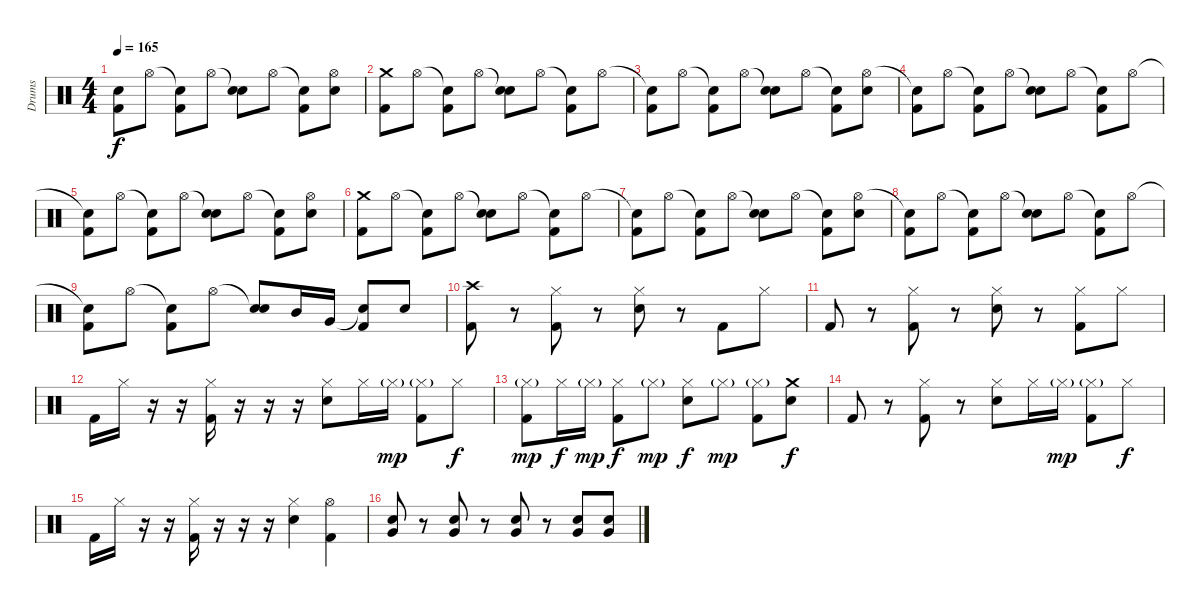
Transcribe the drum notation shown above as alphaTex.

\track ("Drums" "Drums") {instrument percussion}
\staff {score}
\articulation defaults
\ts (4 4)
\tempo 165
\clef neutral
\ks c
("Snare (hit)"{t} "Kick (hit) 2").8{dy f} "Hi-Hat (open)".8 ("Snare (hit)"{t} "Kick (hit) 2").8 "Hi-Hat (open)".8 ("Snare (hit)"{t} "Electric Snare (hit)").8 "Hi-Hat (open)".8 ("Snare (hit)"{t} "Kick (hit) 2").8 ("Hi-Hat (open)" "Electric Snare (hit)").8 |
("Crash medium (hit)" "Kick (hit) 2").8 "Hi-Hat (open)".8 ("Snare (hit)"{t} "Kick (hit) 2").8 "Hi-Hat (open)".8 ("Snare (hit)"{t} "Electric Snare (hit)").8 "Hi-Hat (open)".8 ("Snare (hit)"{t} "Kick (hit) 2").8 "Hi-Hat (open)".8 |
("Snare (hit)"{t} "Kick (hit) 2").8 "Hi-Hat (open)".8 ("Snare (hit)"{t} "Kick (hit) 2").8 "Hi-Hat (open)".8 ("Snare (hit)"{t} "Electric Snare (hit)").8 "Hi-Hat (open)".8 ("Snare (hit)"{t} "Kick (hit) 2").8 ("Hi-Hat (open)" "Electric Snare (hit)").8 |
("Snare (hit)"{t} "Kick (hit) 2").8 "Hi-Hat (open)".8 ("Snare (hit)"{t} "Kick (hit) 2").8 "Hi-Hat (open)".8 ("Snare (hit)"{t} "Electric Snare (hit)").8 "Hi-Hat (open)".8 ("Snare (hit)"{t} "Kick (hit) 2").8 "Hi-Hat (open)".8 |
("Snare (hit)"{t} "Kick (hit) 2").8 "Hi-Hat (open)".8 ("Snare (hit)"{t} "Kick (hit) 2").8 "Hi-Hat (open)".8 ("Snare (hit)"{t} "Electric Snare (hit)").8 "Hi-Hat (open)".8 ("Snare (hit)"{t} "Kick (hit) 2").8 ("Hi-Hat (open)" "Electric Snare (hit)").8 |
("Crash medium (hit)" "Kick (hit) 2").8 "Hi-Hat (open)".8 ("Snare (hit)"{t} "Kick (hit) 2").8 "Hi-Hat (open)".8 ("Snare (hit)"{t} "Electric Snare (hit)").8 "Hi-Hat (open)".8 ("Snare (hit)"{t} "Kick (hit) 2").8 "Hi-Hat (open)".8 |
("Snare (hit)"{t} "Kick (hit) 2").8 "Hi-Hat (open)".8 ("Snare (hit)"{t} "Kick (hit) 2").8 "Hi-Hat (open)".8 ("Snare (hit)"{t} "Electric Snare (hit)").8 "Hi-Hat (open)".8 ("Snare (hit)"{t} "Kick (hit) 2").8 ("Hi-Hat (open)" "Electric Snare (hit)").8 |
("Snare (hit)"{t} "Kick (hit) 2").8 "Hi-Hat (open)".8 ("Snare (hit)"{t} "Kick (hit) 2").8 "Hi-Hat (open)".8 ("Snare (hit)"{t} "Electric Snare (hit)").8 "Hi-Hat (open)".8 ("Snare (hit)"{t} "Kick (hit) 2").8 "Hi-Hat (open)".8 |
("Snare (hit)"{t} "Kick (hit) 2").8 "Hi-Hat (open)".8 ("Snare (hit)"{t} "Kick (hit) 2").8 "Hi-Hat (open)".8 ("Snare (hit)"{t} "Electric Snare (hit)").8 "Mid Tom (hit)".16 "Very Low Tom (hit)".16 ("Snare (hit)"{t} "Kick (hit) 2").8 "Electric Snare (hit)".8 |
("Crash high (hit)" "Kick (hit) 2").8 r.8 ("Hi-Hat (closed)" "Kick (hit) 2").8 r.8 ("Hi-Hat (closed)" "Electric Snare (hit)").8 r.8 "Kick (hit) 2".8 "Hi-Hat (closed)".8 |
"Kick (hit) 2".8 r.8 ("Hi-Hat (closed)" "Kick (hit) 2").8 r.8 ("Hi-Hat (closed)" "Electric Snare (hit)").8 r.8 ("Hi-Hat (closed)" "Kick (hit) 2").8 "Hi-Hat (closed)".8 |
"Kick (hit) 2".16 "Hi-Hat (closed)".16 r.16 r.16 ("Hi-Hat (closed)" "Kick (hit) 2").16 r.16 r.16 r.16 ("Hi-Hat (closed)" "Electric Snare (hit)").8 "Hi-Hat (closed)".16 "Hi-Hat (closed)"{g}.16{dy mp} ("Hi-Hat (closed)"{g} "Kick (hit) 2").8 "Hi-Hat (closed)".8{dy f} |
("Hi-Hat (closed)"{g} "Kick (hit) 2").8{dy mp} "Hi-Hat (closed)".16{dy f} "Hi-Hat (closed)"{g}.16{dy mp} ("Hi-Hat (closed)" "Kick (hit) 2").8{dy f} "Hi-Hat (closed)"{g}.8{dy mp} ("Hi-Hat (closed)" "Electric Snare (hit)").8{dy f} "Hi-Hat (closed)"{g}.8{dy mp} ("Hi-Hat (closed)"{g} "Kick (hit) 2").8 ("Crash medium (hit)" "Electric Snare (hit)").8{dy f} |
"Kick (hit) 2".8 r.8 ("Hi-Hat (closed)" "Kick (hit) 2").8 r.8 ("Hi-Hat (closed)" "Electric Snare (hit)").8 "Hi-Hat (closed)".16 "Hi-Hat (closed)"{g}.16{dy mp} ("Hi-Hat (closed)"{g} "Kick (hit) 2").8 "Hi-Hat (closed)".8{dy f} |
"Kick (hit) 2".16 "Hi-Hat (closed)".16 r.16 r.16 ("Hi-Hat (closed)" "Kick (hit) 2").16 r.16 r.16 r.16 ("Hi-Hat (closed)" "Electric Snare (hit)").4 ("Hi-Hat (open)" "Kick (hit) 2").4 |
("Electric Snare (hit)" "Very Low Tom (hit)").8 r.8 ("Electric Snare (hit)" "Very Low Tom (hit)").8 r.8 ("Electric Snare (hit)" "Very Low Tom (hit)").8 r.8 ("Electric Snare (hit)" "Very Low Tom (hit)").8 ("Electric Snare (hit)" "Very Low Tom (hit)").8
